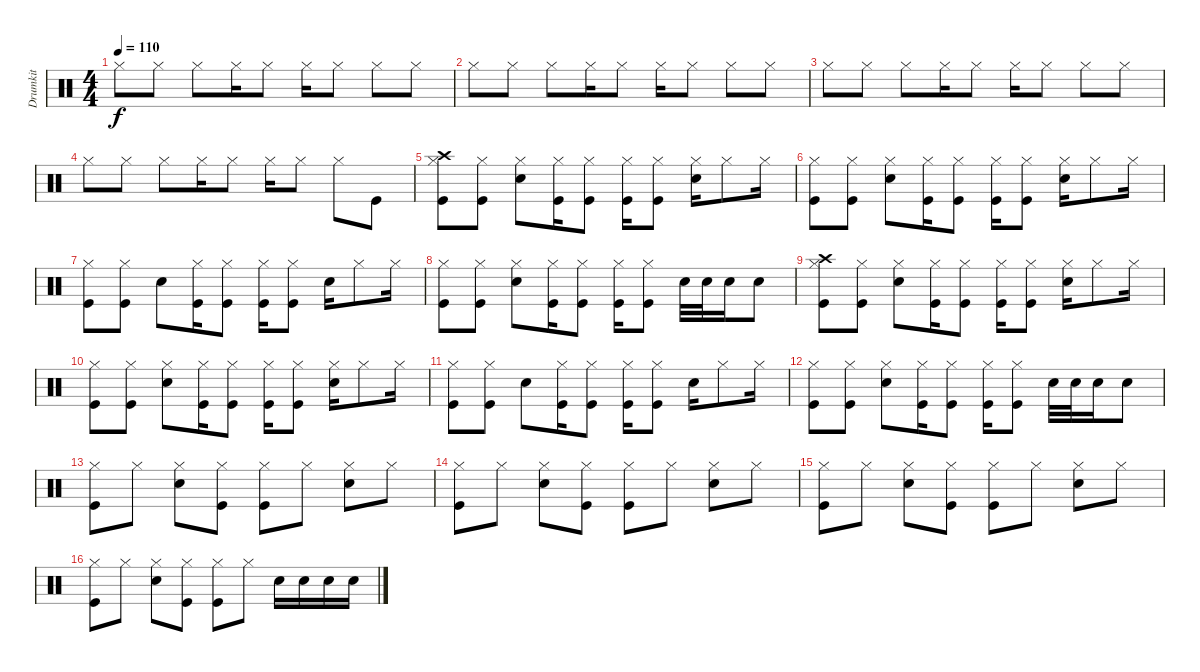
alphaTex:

\track ("Drumkit" "Drumkit") {instrument percussion}
\staff {score}
\articulation defaults
\ts (4 4)
\tempo 110
\clef neutral
\ks c "Hi-Hat (closed)".8{dy f} "Hi-Hat (closed)".8 "Hi-Hat (closed)".8 "Hi-Hat (closed)".16 "Hi-Hat (closed)".8 "Hi-Hat (closed)".16 "Hi-Hat (closed)".8 "Hi-Hat (closed)".8 "Hi-Hat (closed)".8
|
"Hi-Hat (closed)".8 "Hi-Hat (closed)".8 "Hi-Hat (closed)".8 "Hi-Hat (closed)".16 "Hi-Hat (closed)".8 "Hi-Hat (closed)".16 "Hi-Hat (closed)".8 "Hi-Hat (closed)".8 "Hi-Hat (closed)".8 |
"Hi-Hat (closed)".8 "Hi-Hat (closed)".8 "Hi-Hat (closed)".8 "Hi-Hat (closed)".16 "Hi-Hat (closed)".8 "Hi-Hat (closed)".16 "Hi-Hat (closed)".8 "Hi-Hat (closed)".8 "Hi-Hat (closed)".8 |
"Hi-Hat (closed)".8 "Hi-Hat (closed)".8 "Hi-Hat (closed)".8 "Hi-Hat (closed)".16 "Hi-Hat (closed)".8 "Hi-Hat (closed)".16 "Hi-Hat (closed)".8 "Hi-Hat (closed)".8 "Kick (hit)".8 |
("Crash high (hit)" "Hi-Hat (closed)" "Kick (hit)").8 ("Hi-Hat (closed)" "Kick (hit)").8 ("Hi-Hat (closed)" "Snare (hit) 2").8 ("Hi-Hat (closed)" "Kick (hit)").16 ("Hi-Hat (closed)" "Kick (hit)").8 ("Hi-Hat (closed)" "Kick (hit)").16 ("Hi-Hat (closed)" "Kick (hit)").8 ("Hi-Hat (closed)" "Snare (hit) 2").16 "Hi-Hat (closed)".8 "Hi-Hat (closed)".16 |
("Hi-Hat (closed)" "Kick (hit)").8 ("Hi-Hat (closed)" "Kick (hit)").8 ("Hi-Hat (closed)" "Snare (hit) 2").8 ("Hi-Hat (closed)" "Kick (hit)").16 ("Hi-Hat (closed)" "Kick (hit)").8 ("Hi-Hat (closed)" "Kick (hit)").16 ("Hi-Hat (closed)" "Kick (hit)").8 ("Hi-Hat (closed)" "Snare (hit) 2").16 "Hi-Hat (closed)".8 "Hi-Hat (closed)".16 |
("Hi-Hat (closed)" "Kick (hit)").8 ("Hi-Hat (closed)" "Kick (hit)").8 "Snare (hit) 2".8 ("Hi-Hat (closed)" "Kick (hit)").16 ("Hi-Hat (closed)" "Kick (hit)").8 ("Hi-Hat (closed)" "Kick (hit)").16 ("Hi-Hat (closed)" "Kick (hit)").8 "Snare (hit) 2".16 "Hi-Hat (closed)".8 "Hi-Hat (closed)".16 |
("Hi-Hat (closed)" "Kick (hit)").8 ("Hi-Hat (closed)" "Kick (hit)").8 ("Hi-Hat (closed)" "Snare (hit) 2").8 ("Hi-Hat (closed)" "Kick (hit)").16 ("Hi-Hat (closed)" "Kick (hit)").8 ("Hi-Hat (closed)" "Kick (hit)").16 ("Hi-Hat (closed)" "Kick (hit)").8 "Snare (hit) 2".32 "Snare (hit) 2".32 "Snare (hit) 2".16 "Snare (hit) 2".8 |
("Crash high (hit)" "Hi-Hat (closed)" "Kick (hit)").8 ("Hi-Hat (closed)" "Kick (hit)").8 ("Hi-Hat (closed)" "Snare (hit) 2").8 ("Hi-Hat (closed)" "Kick (hit)").16 ("Hi-Hat (closed)" "Kick (hit)").8 ("Hi-Hat (closed)" "Kick (hit)").16 ("Hi-Hat (closed)" "Kick (hit)").8 ("Hi-Hat (closed)" "Snare (hit) 2").16 "Hi-Hat (closed)".8 "Hi-Hat (closed)".16 |
("Hi-Hat (closed)" "Kick (hit)").8 ("Hi-Hat (closed)" "Kick (hit)").8 ("Hi-Hat (closed)" "Snare (hit) 2").8 ("Hi-Hat (closed)" "Kick (hit)").16 ("Hi-Hat (closed)" "Kick (hit)").8 ("Hi-Hat (closed)" "Kick (hit)").16 ("Hi-Hat (closed)" "Kick (hit)").8 ("Hi-Hat (closed)" "Snare (hit) 2").16 "Hi-Hat (closed)".8 "Hi-Hat (closed)".16 |
("Hi-Hat (closed)" "Kick (hit)").8 ("Hi-Hat (closed)" "Kick (hit)").8 "Snare (hit) 2".8 ("Hi-Hat (closed)" "Kick (hit)").16 ("Hi-Hat (closed)" "Kick (hit)").8 ("Hi-Hat (closed)" "Kick (hit)").16 ("Hi-Hat (closed)" "Kick (hit)").8 "Snare (hit) 2".16 "Hi-Hat (closed)".8 "Hi-Hat (closed)".16 |
("Hi-Hat (closed)" "Kick (hit)").8 ("Hi-Hat (closed)" "Kick (hit)").8 ("Hi-Hat (closed)" "Snare (hit) 2").8 ("Hi-Hat (closed)" "Kick (hit)").16 ("Hi-Hat (closed)" "Kick (hit)").8 ("Hi-Hat (closed)" "Kick (hit)").16 ("Hi-Hat (closed)" "Kick (hit)").8 "Snare (hit) 2".32 "Snare (hit) 2".32 "Snare (hit) 2".16 "Snare (hit) 2".8 |
("Hi-Hat (closed)" "Kick (hit)").8 "Hi-Hat (closed)".8 ("Hi-Hat (closed)" "Snare (hit) 2").8 ("Hi-Hat (closed)" "Kick (hit)").8 ("Hi-Hat (closed)" "Kick (hit)").8 "Hi-Hat (closed)".8 ("Hi-Hat (closed)" "Snare (hit) 2").8 "Hi-Hat (closed)".8 |
("Hi-Hat (closed)" "Kick (hit)").8 "Hi-Hat (closed)".8 ("Hi-Hat (closed)" "Snare (hit) 2").8 ("Hi-Hat (closed)" "Kick (hit)").8 ("Hi-Hat (closed)" "Kick (hit)").8 "Hi-Hat (closed)".8 ("Hi-Hat (closed)" "Snare (hit) 2").8 "Hi-Hat (closed)".8 |
("Hi-Hat (closed)" "Kick (hit)").8 "Hi-Hat (closed)".8 ("Hi-Hat (closed)" "Snare (hit) 2").8 ("Hi-Hat (closed)" "Kick (hit)").8 ("Hi-Hat (closed)" "Kick (hit)").8 "Hi-Hat (closed)".8 ("Hi-Hat (closed)" "Snare (hit) 2").8 "Hi-Hat (closed)".8 |
("Hi-Hat (closed)" "Kick (hit)").8 "Hi-Hat (closed)".8 ("Hi-Hat (closed)" "Snare (hit) 2").8 ("Hi-Hat (closed)" "Kick (hit)").8 ("Hi-Hat (closed)" "Kick (hit)").8 "Hi-Hat (closed)".8 "Snare (hit) 2".16 "Snare (hit) 2".16 "Snare (hit) 2".16 "Snare (hit) 2".16
